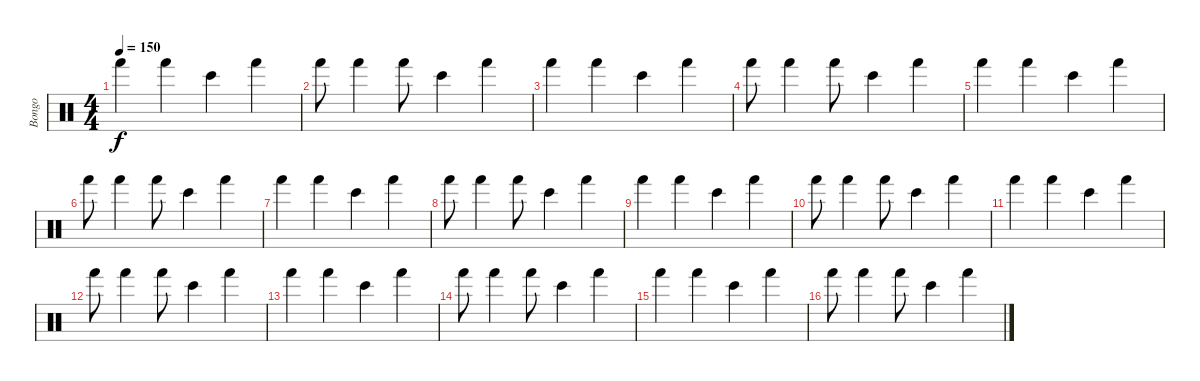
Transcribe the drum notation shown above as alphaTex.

\track ("Bongo" "Bongo") {instrument percussion}
\staff {score}
\articulation defaults
\ts (4 4)
\tempo 150
\clef neutral
\ks c "Hand (hit)".4{dy f} "Hand (hit)".4 "Bongo High (hit)".4 "Hand (hit)".4
|
"Hand (hit)".8 "Hand (hit)".4 "Hand (hit)".8 "Bongo High (hit)".4 "Hand (hit)".4 |
"Hand (hit)".4 "Hand (hit)".4 "Bongo High (hit)".4 "Hand (hit)".4 |
"Hand (hit)".8 "Hand (hit)".4 "Hand (hit)".8 "Bongo High (hit)".4 "Hand (hit)".4 |
"Hand (hit)".4 "Hand (hit)".4 "Bongo High (hit)".4 "Hand (hit)".4 |
"Hand (hit)".8 "Hand (hit)".4 "Hand (hit)".8 "Bongo High (hit)".4 "Hand (hit)".4 |
"Hand (hit)".4 "Hand (hit)".4 "Bongo High (hit)".4 "Hand (hit)".4 |
"Hand (hit)".8 "Hand (hit)".4 "Hand (hit)".8 "Bongo High (hit)".4 "Hand (hit)".4 |
"Hand (hit)".4 "Hand (hit)".4 "Bongo High (hit)".4 "Hand (hit)".4 |
"Hand (hit)".8 "Hand (hit)".4 "Hand (hit)".8 "Bongo High (hit)".4 "Hand (hit)".4 |
"Hand (hit)".4 "Hand (hit)".4 "Bongo High (hit)".4 "Hand (hit)".4 |
"Hand (hit)".8 "Hand (hit)".4 "Hand (hit)".8 "Bongo High (hit)".4 "Hand (hit)".4 |
"Hand (hit)".4 "Hand (hit)".4 "Bongo High (hit)".4 "Hand (hit)".4 |
"Hand (hit)".8 "Hand (hit)".4 "Hand (hit)".8 "Bongo High (hit)".4 "Hand (hit)".4 |
"Hand (hit)".4 "Hand (hit)".4 "Bongo High (hit)".4 "Hand (hit)".4 |
"Hand (hit)".8 "Hand (hit)".4 "Hand (hit)".8 "Bongo High (hit)".4 "Hand (hit)".4
